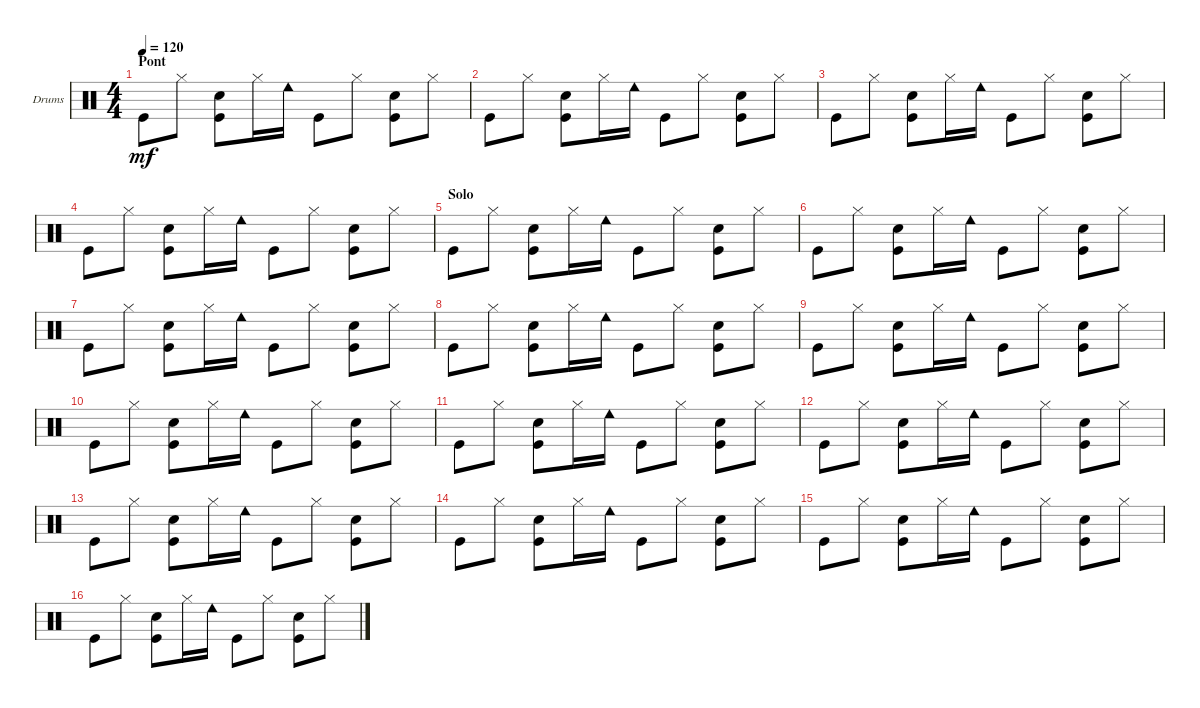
\defaultSystemsLayout 4
\bracketExtendMode groupsimilarinstruments
\firstSystemTrackNameOrientation horizontal
\otherSystemsTrackNameOrientation horizontal
\track ("Drumkit" "Drums") {instrument percussion}
\staff {score}
\articulation defaults
\ts (4 4)
\section ("" "Pont")
\tempo 120
\clef neutral
\ks c "Kick (hit)".8{dy mf} "Hi-Hat (closed)".8
("Snare (hit) 2" "Kick (hit)").8 "Hi-Hat (closed)".16 "Cowbell low (hit)".16 "Kick (hit)".8 "Hi-Hat (closed)".8 ("Snare (hit) 2" "Kick (hit)").8 "Hi-Hat (closed)".8 |
"Kick (hit)".8 "Hi-Hat (closed)".8 ("Snare (hit) 2" "Kick (hit)").8 "Hi-Hat (closed)".16 "Cowbell low (hit)".16 "Kick (hit)".8 "Hi-Hat (closed)".8 ("Snare (hit) 2" "Kick (hit)").8 "Hi-Hat (closed)".8 |
"Kick (hit)".8 "Hi-Hat (closed)".8 ("Snare (hit) 2" "Kick (hit)").8 "Hi-Hat (closed)".16 "Cowbell low (hit)".16 "Kick (hit)".8 "Hi-Hat (closed)".8 ("Snare (hit) 2" "Kick (hit)").8 "Hi-Hat (closed)".8 |
"Kick (hit)".8 "Hi-Hat (closed)".8 ("Snare (hit) 2" "Kick (hit)").8 "Hi-Hat (closed)".16 "Cowbell low (hit)".16 "Kick (hit)".8 "Hi-Hat (closed)".8 ("Snare (hit) 2" "Kick (hit)").8 "Hi-Hat (closed)".8 |
\section ("" "Solo")
"Kick (hit)".8 "Hi-Hat (closed)".8 ("Snare (hit) 2" "Kick (hit)").8 "Hi-Hat (closed)".16 "Cowbell low (hit)".16 "Kick (hit)".8 "Hi-Hat (closed)".8 ("Snare (hit) 2" "Kick (hit)").8 "Hi-Hat (closed)".8 |
"Kick (hit)".8 "Hi-Hat (closed)".8 ("Snare (hit) 2" "Kick (hit)").8 "Hi-Hat (closed)".16 "Cowbell low (hit)".16 "Kick (hit)".8 "Hi-Hat (closed)".8 ("Snare (hit) 2" "Kick (hit)").8 "Hi-Hat (closed)".8 |
"Kick (hit)".8 "Hi-Hat (closed)".8 ("Snare (hit) 2" "Kick (hit)").8 "Hi-Hat (closed)".16 "Cowbell low (hit)".16 "Kick (hit)".8 "Hi-Hat (closed)".8 ("Snare (hit) 2" "Kick (hit)").8 "Hi-Hat (closed)".8 |
"Kick (hit)".8 "Hi-Hat (closed)".8 ("Snare (hit) 2" "Kick (hit)").8 "Hi-Hat (closed)".16 "Cowbell low (hit)".16 "Kick (hit)".8 "Hi-Hat (closed)".8 ("Snare (hit) 2" "Kick (hit)").8 "Hi-Hat (closed)".8 |
"Kick (hit)".8 "Hi-Hat (closed)".8 ("Snare (hit) 2" "Kick (hit)").8 "Hi-Hat (closed)".16 "Cowbell low (hit)".16 "Kick (hit)".8 "Hi-Hat (closed)".8 ("Snare (hit) 2" "Kick (hit)").8 "Hi-Hat (closed)".8 |
"Kick (hit)".8 "Hi-Hat (closed)".8 ("Snare (hit) 2" "Kick (hit)").8 "Hi-Hat (closed)".16 "Cowbell low (hit)".16 "Kick (hit)".8 "Hi-Hat (closed)".8 ("Snare (hit) 2" "Kick (hit)").8 "Hi-Hat (closed)".8 |
"Kick (hit)".8 "Hi-Hat (closed)".8 ("Snare (hit) 2" "Kick (hit)").8 "Hi-Hat (closed)".16 "Cowbell low (hit)".16 "Kick (hit)".8 "Hi-Hat (closed)".8 ("Snare (hit) 2" "Kick (hit)").8 "Hi-Hat (closed)".8 |
"Kick (hit)".8 "Hi-Hat (closed)".8 ("Snare (hit) 2" "Kick (hit)").8 "Hi-Hat (closed)".16 "Cowbell low (hit)".16 "Kick (hit)".8 "Hi-Hat (closed)".8 ("Snare (hit) 2" "Kick (hit)").8 "Hi-Hat (closed)".8 |
"Kick (hit)".8 "Hi-Hat (closed)".8 ("Snare (hit) 2" "Kick (hit)").8 "Hi-Hat (closed)".16 "Cowbell low (hit)".16 "Kick (hit)".8 "Hi-Hat (closed)".8 ("Snare (hit) 2" "Kick (hit)").8 "Hi-Hat (closed)".8 |
"Kick (hit)".8 "Hi-Hat (closed)".8 ("Snare (hit) 2" "Kick (hit)").8 "Hi-Hat (closed)".16 "Cowbell low (hit)".16 "Kick (hit)".8 "Hi-Hat (closed)".8 ("Snare (hit) 2" "Kick (hit)").8 "Hi-Hat (closed)".8 |
"Kick (hit)".8 "Hi-Hat (closed)".8 ("Snare (hit) 2" "Kick (hit)").8 "Hi-Hat (closed)".16 "Cowbell low (hit)".16 "Kick (hit)".8 "Hi-Hat (closed)".8 ("Snare (hit) 2" "Kick (hit)").8 "Hi-Hat (closed)".8 |
"Kick (hit)".8 "Hi-Hat (closed)".8 ("Snare (hit) 2" "Kick (hit)").8 "Hi-Hat (closed)".16 "Cowbell low (hit)".16 "Kick (hit)".8 "Hi-Hat (closed)".8 ("Snare (hit) 2" "Kick (hit)").8 "Hi-Hat (closed)".8
